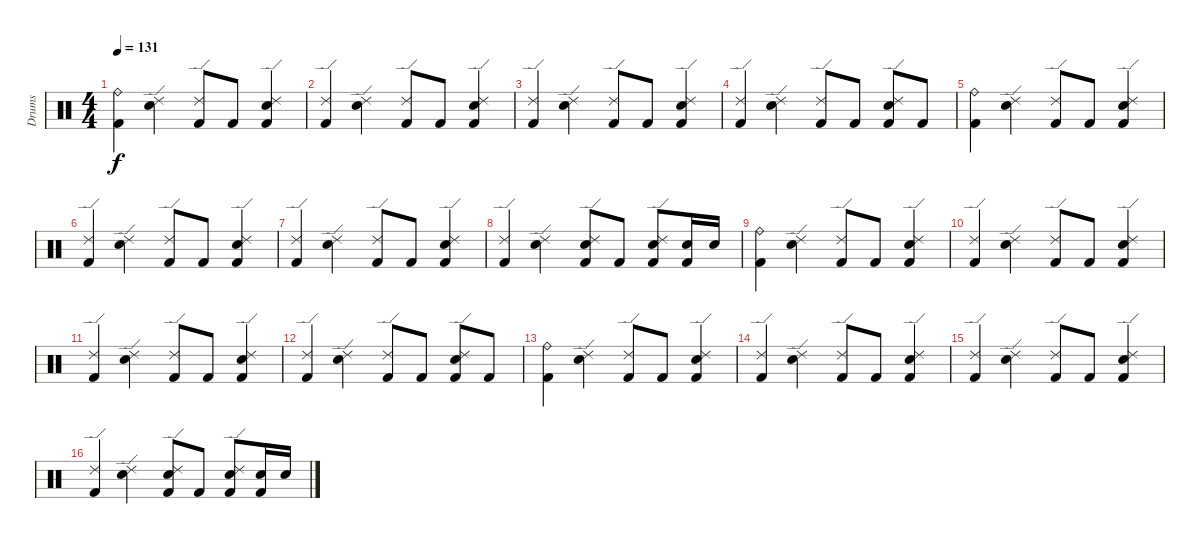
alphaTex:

\track ("Drums" "Drums") {instrument percussion}
\staff {score}
\articulation defaults
\ts (4 4)
\tempo 131
\clef neutral
\ks c
("Ride (bell)" "Kick (hit) 2").4{dy f} ("Ride (edge) 2" "Snare (hit) 2").4 ("Ride (edge) 2" "Kick (hit) 2").8 "Kick (hit) 2".8 ("Ride (edge) 2" "Snare (hit) 2" "Kick (hit) 2").4 |
("Ride (edge) 2" "Kick (hit) 2").4 ("Ride (edge) 2" "Snare (hit) 2").4 ("Ride (edge) 2" "Kick (hit) 2").8 "Kick (hit) 2".8 ("Ride (edge) 2" "Snare (hit) 2" "Kick (hit) 2").4 |
("Ride (edge) 2" "Kick (hit) 2").4 ("Ride (edge) 2" "Snare (hit) 2").4 ("Ride (edge) 2" "Kick (hit) 2").8 "Kick (hit) 2".8 ("Ride (edge) 2" "Snare (hit) 2" "Kick (hit) 2").4 |
("Ride (edge) 2" "Kick (hit) 2").4 ("Ride (edge) 2" "Snare (hit) 2").4 ("Ride (edge) 2" "Kick (hit) 2").8 "Kick (hit) 2".8 ("Ride (edge) 2" "Snare (hit) 2" "Kick (hit) 2").8 "Kick (hit) 2".8 |
("Ride (bell)" "Kick (hit) 2").4 ("Ride (edge) 2" "Snare (hit) 2").4 ("Ride (edge) 2" "Kick (hit) 2").8 "Kick (hit) 2".8 ("Ride (edge) 2" "Snare (hit) 2" "Kick (hit) 2").4 |
("Ride (edge) 2" "Kick (hit) 2").4 ("Ride (edge) 2" "Snare (hit) 2").4 ("Ride (edge) 2" "Kick (hit) 2").8 "Kick (hit) 2".8 ("Ride (edge) 2" "Snare (hit) 2" "Kick (hit) 2").4 |
("Ride (edge) 2" "Kick (hit) 2").4 ("Ride (edge) 2" "Snare (hit) 2").4 ("Ride (edge) 2" "Kick (hit) 2").8 "Kick (hit) 2".8 ("Ride (edge) 2" "Snare (hit) 2" "Kick (hit) 2").4 |
("Ride (edge) 2" "Kick (hit) 2").4 ("Ride (edge) 2" "Snare (hit) 2").4 ("Ride (edge) 2" "Snare (hit) 2" "Kick (hit) 2").8 "Kick (hit) 2".8 ("Ride (edge) 2" "Snare (hit) 2" "Kick (hit) 2").8 ("Snare (hit) 2" "Kick (hit) 2").16 "Snare (hit) 2".16 |
("Ride (bell)" "Kick (hit) 2").4 ("Ride (edge) 2" "Snare (hit) 2").4 ("Ride (edge) 2" "Kick (hit) 2").8 "Kick (hit) 2".8 ("Ride (edge) 2" "Snare (hit) 2" "Kick (hit) 2").4 |
("Ride (edge) 2" "Kick (hit) 2").4 ("Ride (edge) 2" "Snare (hit) 2").4 ("Ride (edge) 2" "Kick (hit) 2").8 "Kick (hit) 2".8 ("Ride (edge) 2" "Snare (hit) 2" "Kick (hit) 2").4 |
("Ride (edge) 2" "Kick (hit) 2").4 ("Ride (edge) 2" "Snare (hit) 2").4 ("Ride (edge) 2" "Kick (hit) 2").8 "Kick (hit) 2".8 ("Ride (edge) 2" "Snare (hit) 2" "Kick (hit) 2").4 |
("Ride (edge) 2" "Kick (hit) 2").4 ("Ride (edge) 2" "Snare (hit) 2").4 ("Ride (edge) 2" "Kick (hit) 2").8 "Kick (hit) 2".8 ("Ride (edge) 2" "Snare (hit) 2" "Kick (hit) 2").8 "Kick (hit) 2".8 |
("Ride (bell)" "Kick (hit) 2").4 ("Ride (edge) 2" "Snare (hit) 2").4 ("Ride (edge) 2" "Kick (hit) 2").8 "Kick (hit) 2".8 ("Ride (edge) 2" "Snare (hit) 2" "Kick (hit) 2").4 |
("Ride (edge) 2" "Kick (hit) 2").4 ("Ride (edge) 2" "Snare (hit) 2").4 ("Ride (edge) 2" "Kick (hit) 2").8 "Kick (hit) 2".8 ("Ride (edge) 2" "Snare (hit) 2" "Kick (hit) 2").4 |
("Ride (edge) 2" "Kick (hit) 2").4 ("Ride (edge) 2" "Snare (hit) 2").4 ("Ride (edge) 2" "Kick (hit) 2").8 "Kick (hit) 2".8 ("Ride (edge) 2" "Snare (hit) 2" "Kick (hit) 2").4 |
("Ride (edge) 2" "Kick (hit) 2").4 ("Ride (edge) 2" "Snare (hit) 2").4 ("Ride (edge) 2" "Snare (hit) 2" "Kick (hit) 2").8 "Kick (hit) 2".8 ("Ride (edge) 2" "Snare (hit) 2" "Kick (hit) 2").8 ("Snare (hit) 2" "Kick (hit) 2").16 "Snare (hit) 2".16
